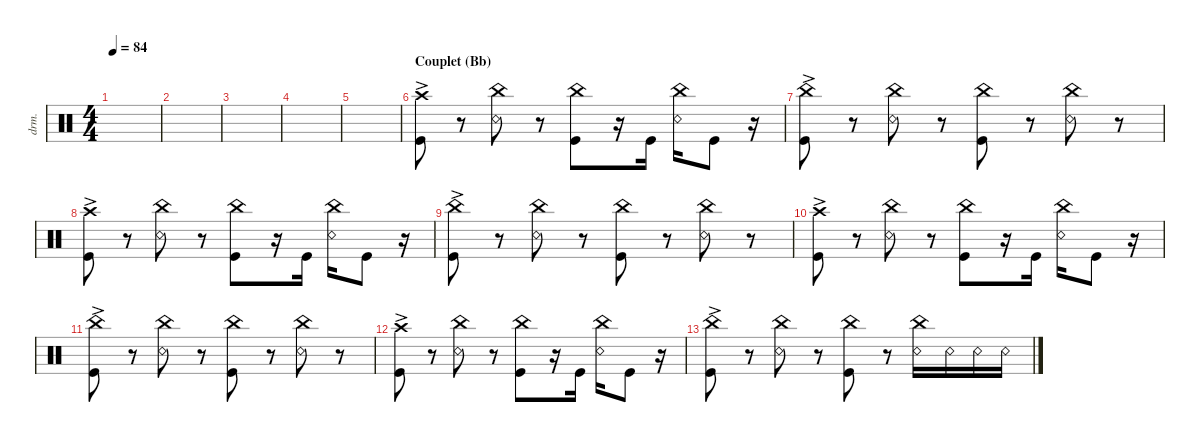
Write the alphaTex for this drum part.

\defaultSystemsLayout 4
\hideDynamics
\bracketExtendMode nobrackets
\otherSystemsTrackNameOrientation horizontal
\track ("Drumkit" "drm.") {instrument percussion}
\staff {score}
\articulation defaults
\ts (4 4)
\tempo 84
\clef neutral
\ks aminor
|
|
|
|
|
\section ("" "Couplet (Bb)")
("Kick (hit)" "Crash high (hit)"{ac}).8{dy mf beam Down} r.8{beam Down} ("Snare (rim shot)" "China (hit)").8{beam Down} r.8{beam Down} ("Kick (hit)" "China (hit)").8{beam Down} r.16{beam Down} "Kick (hit)".16{beam Down} ("Snare (rim shot)" "China (hit)").16{beam Down} "Kick (hit)".8{beam Down} r.16{beam Down} |
("Kick (hit)" "China (hit)"{ac}).8{beam Down} r.8{beam Down} ("Snare (rim shot)" "China (hit)").8{beam Down} r.8{beam Down} ("Kick (hit)" "China (hit)").8{beam Down} r.8{beam Down} ("China (hit)" "Snare (rim shot)").8{beam Down} r.8{beam Down} |
("Kick (hit)" "Crash high (hit)"{ac}).8{beam Down} r.8{beam Down} ("Snare (rim shot)" "China (hit)").8{beam Down} r.8{beam Down} ("Kick (hit)" "China (hit)").8{beam Down} r.16{beam Down} "Kick (hit)".16{beam Down} ("Snare (rim shot)" "China (hit)").16{beam Down} "Kick (hit)".8{beam Down} r.16{beam Down} |
("Kick (hit)" "China (hit)"{ac}).8{beam Down} r.8{beam Down} ("Snare (rim shot)" "China (hit)").8{beam Down} r.8{beam Down} ("Kick (hit)" "China (hit)").8{beam Down} r.8{beam Down} ("China (hit)" "Snare (rim shot)").8{beam Down} r.8{beam Down} |
("Kick (hit)" "Crash high (hit)"{ac}).8{beam Down} r.8{beam Down} ("Snare (rim shot)" "China (hit)").8{beam Down} r.8{beam Down} ("Kick (hit)" "China (hit)").8{beam Down} r.16{beam Down} "Kick (hit)".16{beam Down} ("Snare (rim shot)" "China (hit)").16{beam Down} "Kick (hit)".8{beam Down} r.16{beam Down} |
("Kick (hit)" "China (hit)"{ac}).8{beam Down} r.8{beam Down} ("Snare (rim shot)" "China (hit)").8{beam Down} r.8{beam Down} ("Kick (hit)" "China (hit)").8{beam Down} r.8{beam Down} ("China (hit)" "Snare (rim shot)").8{beam Down} r.8{beam Down} |
("Kick (hit)" "Crash high (hit)"{ac}).8{beam Down} r.8{beam Down} ("Snare (rim shot)" "China (hit)").8{beam Down} r.8{beam Down} ("Kick (hit)" "China (hit)").8{beam Down} r.16{beam Down} "Kick (hit)".16{beam Down} ("Snare (rim shot)" "China (hit)").16{beam Down} "Kick (hit)".8{beam Down} r.16{beam Down} |
("Kick (hit)" "China (hit)"{ac}).8{beam Down} r.8{beam Down} ("Snare (rim shot)" "China (hit)").8{beam Down} r.8{beam Down} ("Kick (hit)" "China (hit)").8{beam Down} r.8{beam Down} ("China (hit)" "Snare (rim shot)").16{beam Down} "Snare (rim shot)".16{beam Down} "Snare (rim shot)".16{beam Down} "Snare (rim shot)".16{beam Down}
